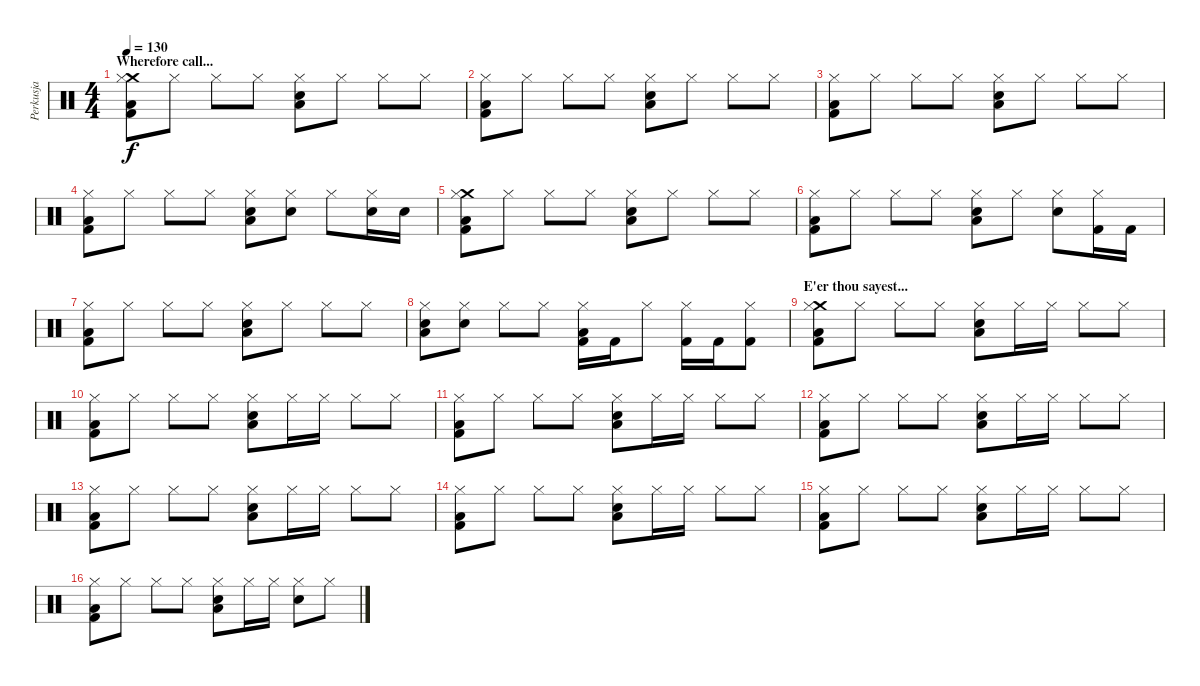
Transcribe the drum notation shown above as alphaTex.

\track ("Perkusja" "Perkusja") {instrument percussion}
\staff {score}
\articulation defaults
\ts (4 4)
\section ("" "Wherefore call...")
\tempo 130
\clef neutral
\ks c
("Crash medium (hit)" "Kick (hit) 2" "Hi-Hat (closed)" "Low Tom (hit)").8{dy f} "Hi-Hat (closed)".8 "Hi-Hat (closed)".8 "Hi-Hat (closed)".8 ("Snare (hit) 2" "Hi-Hat (closed)" "Low Tom (hit)").8 "Hi-Hat (closed)".8 "Hi-Hat (closed)".8 "Hi-Hat (closed)".8 |
("Kick (hit) 2" "Hi-Hat (closed)" "Low Tom (hit)").8 "Hi-Hat (closed)".8 "Hi-Hat (closed)".8 "Hi-Hat (closed)".8 ("Snare (hit) 2" "Hi-Hat (closed)" "Low Tom (hit)").8 "Hi-Hat (closed)".8 "Hi-Hat (closed)".8 "Hi-Hat (closed)".8 |
("Kick (hit) 2" "Hi-Hat (closed)" "Low Tom (hit)").8 "Hi-Hat (closed)".8 "Hi-Hat (closed)".8 "Hi-Hat (closed)".8 ("Snare (hit) 2" "Hi-Hat (closed)" "Low Tom (hit)").8 "Hi-Hat (closed)".8 "Hi-Hat (closed)".8 "Hi-Hat (closed)".8 |
("Kick (hit) 2" "Hi-Hat (closed)" "Low Tom (hit)").8 "Hi-Hat (closed)".8 "Hi-Hat (closed)".8 "Hi-Hat (closed)".8 ("Snare (hit) 2" "Hi-Hat (closed)" "Low Tom (hit)").8 ("Snare (hit) 2" "Hi-Hat (closed)").8 "Hi-Hat (closed)".8 ("Snare (hit) 2" "Hi-Hat (closed)").16 "Snare (hit) 2".16 |
("Crash medium (hit)" "Kick (hit) 2" "Hi-Hat (closed)" "Low Tom (hit)").8 "Hi-Hat (closed)".8 "Hi-Hat (closed)".8 "Hi-Hat (closed)".8 ("Snare (hit) 2" "Hi-Hat (closed)" "Low Tom (hit)").8 "Hi-Hat (closed)".8 "Hi-Hat (closed)".8 "Hi-Hat (closed)".8 |
("Kick (hit) 2" "Hi-Hat (closed)" "Low Tom (hit)").8 "Hi-Hat (closed)".8 "Hi-Hat (closed)".8 "Hi-Hat (closed)".8 ("Snare (hit) 2" "Hi-Hat (closed)" "Low Tom (hit)").8 "Hi-Hat (closed)".8 ("Snare (hit) 2" "Hi-Hat (closed)").8 ("Kick (hit) 2" "Hi-Hat (closed)").16 "Kick (hit) 2".16 |
("Kick (hit) 2" "Hi-Hat (closed)" "Low Tom (hit)").8 "Hi-Hat (closed)".8 "Hi-Hat (closed)".8 "Hi-Hat (closed)".8 ("Snare (hit) 2" "Hi-Hat (closed)" "Low Tom (hit)").8 "Hi-Hat (closed)".8 "Hi-Hat (closed)".8 "Hi-Hat (closed)".8 |
("Snare (hit) 2" "Hi-Hat (closed)" "Low Tom (hit)").8 ("Snare (hit) 2" "Hi-Hat (closed)").8 "Hi-Hat (closed)".8 "Hi-Hat (closed)".8 ("Kick (hit) 2" "Hi-Hat (closed)" "Low Tom (hit)").16 "Kick (hit) 2".16 "Hi-Hat (closed)".8 ("Kick (hit) 2" "Hi-Hat (closed)").16 "Kick (hit) 2".16 ("Kick (hit) 2" "Hi-Hat (closed)").8 |
\section ("" "E'er thou sayest...")
("Crash medium (hit)" "Kick (hit) 2" "Hi-Hat (closed)" "Low Tom (hit)").8 "Hi-Hat (closed)".8 "Hi-Hat (closed)".8 "Hi-Hat (closed)".8 ("Snare (hit) 2" "Hi-Hat (closed)" "Low Tom (hit)").8 "Hi-Hat (closed)".16 "Hi-Hat (closed)".16 "Hi-Hat (closed)".8 "Hi-Hat (closed)".8 |
("Kick (hit) 2" "Hi-Hat (closed)" "Low Tom (hit)").8 "Hi-Hat (closed)".8 "Hi-Hat (closed)".8 "Hi-Hat (closed)".8 ("Snare (hit) 2" "Hi-Hat (closed)" "Low Tom (hit)").8 "Hi-Hat (closed)".16 "Hi-Hat (closed)".16 "Hi-Hat (closed)".8 "Hi-Hat (closed)".8 |
("Kick (hit) 2" "Hi-Hat (closed)" "Low Tom (hit)").8 "Hi-Hat (closed)".8 "Hi-Hat (closed)".8 "Hi-Hat (closed)".8 ("Snare (hit) 2" "Hi-Hat (closed)" "Low Tom (hit)").8 "Hi-Hat (closed)".16 "Hi-Hat (closed)".16 "Hi-Hat (closed)".8 "Hi-Hat (closed)".8 |
("Kick (hit) 2" "Hi-Hat (closed)" "Low Tom (hit)").8 "Hi-Hat (closed)".8 "Hi-Hat (closed)".8 "Hi-Hat (closed)".8 ("Snare (hit) 2" "Hi-Hat (closed)" "Low Tom (hit)").8 "Hi-Hat (closed)".16 "Hi-Hat (closed)".16 "Hi-Hat (closed)".8 "Hi-Hat (closed)".8 |
("Kick (hit) 2" "Hi-Hat (closed)" "Low Tom (hit)").8 "Hi-Hat (closed)".8 "Hi-Hat (closed)".8 "Hi-Hat (closed)".8 ("Snare (hit) 2" "Hi-Hat (closed)" "Low Tom (hit)").8 "Hi-Hat (closed)".16 "Hi-Hat (closed)".16 "Hi-Hat (closed)".8 "Hi-Hat (closed)".8 |
("Kick (hit) 2" "Hi-Hat (closed)" "Low Tom (hit)").8 "Hi-Hat (closed)".8 "Hi-Hat (closed)".8 "Hi-Hat (closed)".8 ("Snare (hit) 2" "Hi-Hat (closed)" "Low Tom (hit)").8 "Hi-Hat (closed)".16 "Hi-Hat (closed)".16 "Hi-Hat (closed)".8 "Hi-Hat (closed)".8 |
("Kick (hit) 2" "Hi-Hat (closed)" "Low Tom (hit)").8 "Hi-Hat (closed)".8 "Hi-Hat (closed)".8 "Hi-Hat (closed)".8 ("Snare (hit) 2" "Hi-Hat (closed)" "Low Tom (hit)").8 "Hi-Hat (closed)".16 "Hi-Hat (closed)".16 "Hi-Hat (closed)".8 "Hi-Hat (closed)".8 |
("Kick (hit) 2" "Hi-Hat (closed)" "Low Tom (hit)").8 "Hi-Hat (closed)".8 "Hi-Hat (closed)".8 "Hi-Hat (closed)".8 ("Snare (hit) 2" "Hi-Hat (closed)" "Low Tom (hit)").8 "Hi-Hat (closed)".16 "Hi-Hat (closed)".16 ("Snare (hit) 2" "Hi-Hat (closed)").8 "Hi-Hat (closed)".8
